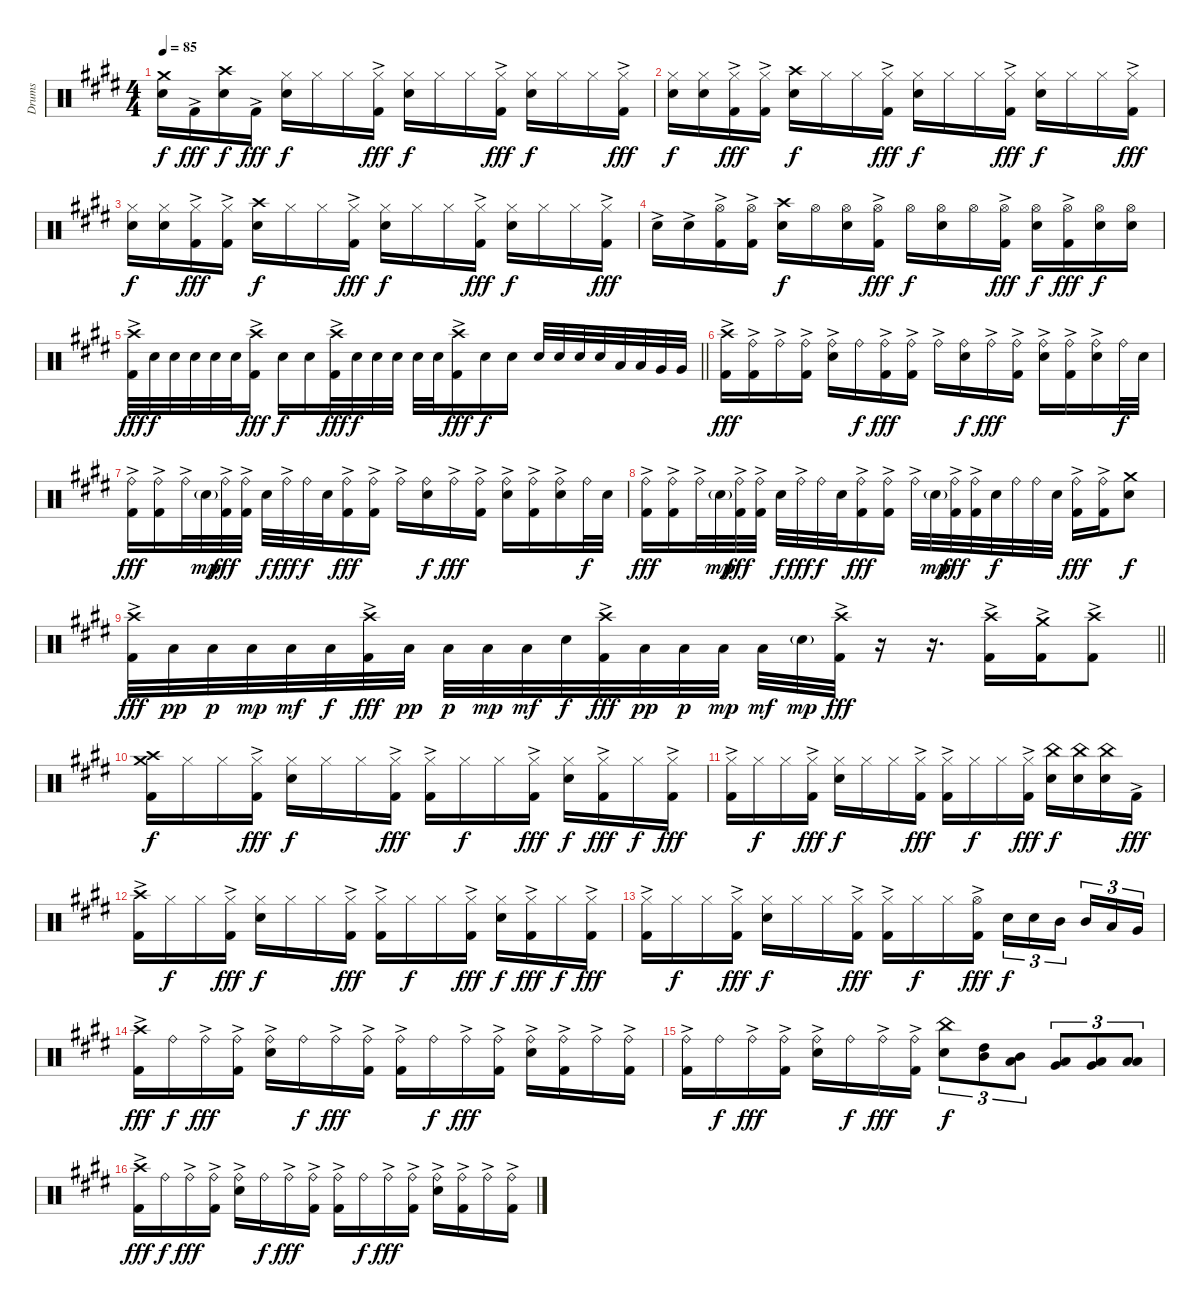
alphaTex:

\track ("Drums" "Drums") {instrument percussion}
\staff {score}
\articulation defaults
\ts (4 4)
\tempo 85
\clef neutral
\ks e
("Crash medium (hit)" "Snare (hit) 2").16{dy f} "Kick (hit) 2"{ac}.16{dy fff} ("Crash high (hit)" "Snare (hit) 2").16{dy f} "Kick (hit) 2"{ac}.16{dy fff} ("Hi-Hat (closed)" "Snare (hit) 2").16{dy f} "Hi-Hat (closed)".16 "Hi-Hat (closed)".16 ("Hi-Hat (closed)" "Kick (hit) 2"{ac}).16{dy fff} ("Hi-Hat (closed)" "Snare (hit) 2").16{dy f} "Hi-Hat (closed)".16 "Hi-Hat (closed)".16 ("Hi-Hat (closed)" "Kick (hit) 2"{ac}).16{dy fff} ("Hi-Hat (closed)" "Snare (hit) 2").16{dy f} "Hi-Hat (closed)".16 "Hi-Hat (closed)".16 ("Hi-Hat (closed)" "Kick (hit) 2"{ac}).16{dy fff} |
("Hi-Hat (closed)" "Snare (hit) 2").16{dy f} ("Hi-Hat (closed)" "Snare (hit) 2").16 ("Hi-Hat (closed)" "Kick (hit) 2"{ac}).16{dy fff} ("Hi-Hat (closed)" "Kick (hit) 2"{ac}).16 ("Crash high (hit)" "Snare (hit) 2").16{dy f} "Hi-Hat (closed)".16 "Hi-Hat (closed)".16 ("Hi-Hat (closed)" "Kick (hit) 2"{ac}).16{dy fff} ("Hi-Hat (closed)" "Snare (hit) 2").16{dy f} "Hi-Hat (closed)".16 "Hi-Hat (closed)".16 ("Hi-Hat (closed)" "Kick (hit) 2"{ac}).16{dy fff} ("Hi-Hat (closed)" "Snare (hit) 2").16{dy f} "Hi-Hat (closed)".16 "Hi-Hat (closed)".16 ("Hi-Hat (closed)" "Kick (hit) 2"{ac}).16{dy fff} |
("Hi-Hat (closed)" "Snare (hit) 2").16{dy f} ("Hi-Hat (closed)" "Snare (hit) 2").16 ("Hi-Hat (closed)" "Kick (hit) 2"{ac}).16{dy fff} ("Hi-Hat (closed)" "Kick (hit) 2"{ac}).16 ("Crash high (hit)" "Snare (hit) 2").16{dy f} "Hi-Hat (closed)".16 "Hi-Hat (closed)".16 ("Hi-Hat (closed)" "Kick (hit) 2"{ac}).16{dy fff} ("Hi-Hat (closed)" "Snare (hit) 2").16{dy f} "Hi-Hat (closed)".16 "Hi-Hat (closed)".16 ("Hi-Hat (closed)" "Kick (hit) 2"{ac}).16{dy fff} ("Hi-Hat (closed)" "Snare (hit) 2").16{dy f} "Hi-Hat (closed)".16 "Hi-Hat (closed)".16 ("Hi-Hat (closed)" "Kick (hit) 2"{ac}).16{dy fff} |
"Snare (hit) 2"{ac}.16 "Snare (hit) 2"{ac}.16 ("Hi-Hat (open)" "Kick (hit) 2"{ac}).16 ("Hi-Hat (open)" "Kick (hit) 2"{ac}).16 ("Crash high (hit)" "Snare (hit) 2").16{dy f} "Hi-Hat (open)".16 ("Hi-Hat (open)" "Snare (hit) 2").16 ("Hi-Hat (open)" "Kick (hit) 2"{ac}).16{dy fff} "Hi-Hat (open)".16{dy f} ("Hi-Hat (open)" "Snare (hit) 2").16 "Hi-Hat (open)".16 ("Hi-Hat (open)" "Kick (hit) 2"{ac}).16{dy fff} ("Hi-Hat (open)" "Snare (hit) 2").16{dy f} ("Hi-Hat (open)" "Kick (hit) 2"{ac}).16{dy fff} ("Hi-Hat (open)" "Snare (hit) 2").16{dy f} ("Hi-Hat (open)" "Snare (hit) 2").16 |
\barLineRight lightlight
("Crash high (hit)" "Kick (hit) 2"{ac}).32{dy fff} "Snare (hit) 2".32{dy f} "Snare (hit) 2".32 "Snare (hit) 2".32 "Snare (hit) 2".32 "Snare (hit) 2".32 ("Crash high (hit)" "Kick (hit) 2"{ac}).16{dy fff} "Snare (hit) 2".16{dy f} "Snare (hit) 2".16 ("Crash high (hit)" "Kick (hit) 2"{ac}).32{dy fff} "Snare (hit) 2".32{dy f} "Snare (hit) 2".32 "Snare (hit) 2".32 "Snare (hit) 2".32 "Snare (hit) 2".32 ("Crash high (hit)" "Kick (hit) 2"{ac}).16{dy fff} "Snare (hit) 2".16{dy f} "Snare (hit) 2".16 "Snare (hit) 2".32 "Snare (hit) 2".32 "Snare (hit) 2".32 "Snare (hit) 2".32 "Low Tom (hit)".32 "Low Tom (hit)".32 "Very Low Tom (hit)".32 "Very Low Tom (hit)".32 |
("Crash high (hit)" "Kick (hit) 2"{ac}).16{dy fff} ("Ride (bell)" "Kick (hit) 2"{ac}).16 "Ride (bell)"{ac}.16 ("Ride (bell)" "Kick (hit) 2"{ac}).16 ("Ride (bell)"{ac} "Snare (hit) 2").16 "Ride (bell)".16{dy f} ("Ride (bell)"{ac} "Kick (hit) 2"{ac}).16{dy fff} ("Ride (bell)" "Kick (hit) 2"{ac}).16 "Ride (bell)"{ac}.16 ("Ride (bell)" "Snare (hit) 2").16{dy f} "Ride (bell)"{ac}.16{dy fff} ("Ride (bell)" "Kick (hit) 2"{ac}).16 ("Ride (bell)"{ac} "Snare (hit) 2").16 ("Ride (bell)" "Kick (hit) 2"{ac}).16 ("Ride (bell)"{ac} "Snare (hit) 2").16 "Ride (bell)".32{dy f} "Snare (hit) 2".32 |
("Ride (bell)"{ac} "Kick (hit) 2"{ac}).16{dy fff} ("Ride (bell)" "Kick (hit) 2"{ac}).16 "Ride (bell)"{ac}.32 "Snare (hit) 2"{g}.32{dy mp} ("Ride (bell)" "Kick (hit) 2"{ac}).32{dy fff} ("Ride (bell)" "Kick (hit) 2"{ac}).32 "Snare (hit) 2".32{dy f} "Ride (bell)"{ac}.32{dy fff} "Ride (bell)".32{dy f} "Snare (hit) 2".32 ("Ride (bell)"{ac} "Kick (hit) 2"{ac}).16{dy fff} ("Ride (bell)" "Kick (hit) 2"{ac}).16 "Ride (bell)"{ac}.16 ("Ride (bell)" "Snare (hit) 2").16{dy f} "Ride (bell)"{ac}.16{dy fff} ("Ride (bell)" "Kick (hit) 2"{ac}).16 ("Ride (bell)"{ac} "Snare (hit) 2").16 ("Ride (bell)" "Kick (hit) 2"{ac}).16 ("Ride (bell)"{ac} "Snare (hit) 2").16 "Ride (bell)".32{dy f} "Snare (hit) 2".32 |
("Ride (bell)"{ac} "Kick (hit) 2"{ac}).16{dy fff} ("Ride (bell)" "Kick (hit) 2"{ac}).16 "Ride (bell)"{ac}.32 "Snare (hit) 2"{g}.32{dy mp} ("Ride (bell)" "Kick (hit) 2"{ac}).32{dy fff} ("Ride (bell)" "Kick (hit) 2"{ac}).32 "Snare (hit) 2".32{dy f} "Ride (bell)"{ac}.32{dy fff} "Ride (bell)".32{dy f} "Snare (hit) 2".32 ("Ride (bell)"{ac} "Kick (hit) 2"{ac}).16{dy fff} ("Ride (bell)" "Kick (hit) 2"{ac}).16 "Ride (bell)"{ac}.32 "Snare (hit) 2"{g}.32{dy mp} ("Ride (bell)" "Kick (hit) 2"{ac}).32{dy fff} ("Ride (bell)"{ac} "Kick (hit) 2"{ac}).32 "Snare (hit) 2".32{dy f} "Ride (bell)".32 "Ride (bell)".32 "Snare (hit) 2".32 ("Ride (bell)"{ac} "Kick (hit) 2"{ac}).16{dy fff} ("Ride (bell)" "Kick (hit) 2"{ac}).16 ("Crash medium (hit)" "Snare (hit) 2").8{dy f} |
\barLineRight lightlight
("Crash high (hit)" "Kick (hit) 2"{ac}).32{dy fff} "Low Floor Tom (hit)".32{dy pp} "Low Floor Tom (hit)".32{dy p} "Low Floor Tom (hit)".32{dy mp} "Low Floor Tom (hit)".32{dy mf} "Low Floor Tom (hit)".32{dy f} ("Crash high (hit)" "Kick (hit) 2"{ac}).32{dy fff} "Low Floor Tom (hit)".32{dy pp} "Low Floor Tom (hit)".32{dy p} "Low Floor Tom (hit)".32{dy mp} "Low Floor Tom (hit)".32{dy mf} "Snare (hit) 2".32{dy f} ("Crash high (hit)" "Kick (hit) 2"{ac}).32{dy fff} "Low Floor Tom (hit)".32{dy pp} "Low Floor Tom (hit)".32{dy p} "Low Floor Tom (hit)".32{dy mp} "Low Floor Tom (hit)".32{dy mf} "Snare (hit) 2"{g}.32{dy mp} ("Crash high (hit)" "Kick (hit) 2"{ac}).32{dy fff} r.16 r.16{d} ("Crash high (hit)" "Kick (hit) 2"{ac}).16 ("Crash medium (hit)" "Kick (hit) 2"{ac}).16 ("Crash high (hit)" "Kick (hit) 2"{ac}).8 |
("Crash high (hit)" "Crash medium (hit)" "Kick (hit) 2").16{dy f} "Hi-Hat (closed)".16 "Hi-Hat (closed)".16 ("Hi-Hat (closed)" "Kick (hit) 2"{ac}).16{dy fff} ("Hi-Hat (closed)" "Snare (hit) 2").16{dy f} "Hi-Hat (closed)".16 "Hi-Hat (closed)".16 ("Hi-Hat (closed)" "Kick (hit) 2"{ac}).16{dy fff} ("Hi-Hat (closed)" "Kick (hit) 2"{ac}).16 "Hi-Hat (closed)".16{dy f} "Hi-Hat (closed)".16 ("Hi-Hat (closed)" "Kick (hit) 2"{ac}).16{dy fff} ("Hi-Hat (closed)" "Snare (hit) 2").16{dy f} ("Hi-Hat (closed)" "Kick (hit) 2"{ac}).16{dy fff} "Hi-Hat (closed)".16{dy f} ("Hi-Hat (closed)" "Kick (hit) 2"{ac}).16{dy fff} |
("Hi-Hat (closed)" "Kick (hit) 2"{ac}).16 "Hi-Hat (closed)".16{dy f} "Hi-Hat (closed)".16 ("Hi-Hat (closed)" "Kick (hit) 2"{ac}).16{dy fff} ("Hi-Hat (closed)" "Snare (hit) 2").16{dy f} "Hi-Hat (closed)".16 "Hi-Hat (closed)".16 ("Hi-Hat (closed)" "Kick (hit) 2"{ac}).16{dy fff} ("Hi-Hat (closed)" "Kick (hit) 2"{ac}).16 "Hi-Hat (closed)".16{dy f} "Hi-Hat (closed)".16 ("Hi-Hat (closed)" "Kick (hit) 2"{ac}).16{dy fff} ("China (hit)" "Snare (hit) 2").16{dy f} ("China (hit)" "Snare (hit) 2").16 ("China (hit)" "Snare (hit) 2").16 "Kick (hit) 2"{ac}.16{dy fff} |
("Crash high (hit)" "Kick (hit) 2"{ac}).16 "Hi-Hat (closed)".16{dy f} "Hi-Hat (closed)".16 ("Hi-Hat (closed)" "Kick (hit) 2"{ac}).16{dy fff} ("Hi-Hat (closed)" "Snare (hit) 2").16{dy f} "Hi-Hat (closed)".16 "Hi-Hat (closed)".16 ("Hi-Hat (closed)" "Kick (hit) 2"{ac}).16{dy fff} ("Hi-Hat (closed)" "Kick (hit) 2"{ac}).16 "Hi-Hat (closed)".16{dy f} "Hi-Hat (closed)".16 ("Hi-Hat (closed)" "Kick (hit) 2"{ac}).16{dy fff} ("Hi-Hat (closed)" "Snare (hit) 2").16{dy f} ("Hi-Hat (closed)" "Kick (hit) 2"{ac}).16{dy fff} "Hi-Hat (closed)".16{dy f} ("Hi-Hat (closed)" "Kick (hit) 2"{ac}).16{dy fff} |
("Hi-Hat (closed)" "Kick (hit) 2"{ac}).16 "Hi-Hat (closed)".16{dy f} "Hi-Hat (closed)".16 ("Hi-Hat (closed)" "Kick (hit) 2"{ac}).16{dy fff} ("Hi-Hat (closed)" "Snare (hit) 2").16{dy f} "Hi-Hat (closed)".16 "Hi-Hat (closed)".16 ("Hi-Hat (closed)" "Kick (hit) 2"{ac}).16{dy fff} ("Hi-Hat (closed)" "Kick (hit) 2"{ac}).16 "Hi-Hat (closed)".16{dy f} "Hi-Hat (closed)".16 ("Hi-Hat (open)" "Kick (hit) 2"{ac}).16{dy fff} "Snare (hit) 2".16{tu (3 2) dy f} "Snare (hit) 2".16{tu (3 2)} "Mid Tom (hit)".16{tu (3 2)} "Mid Tom (hit)".16{tu (3 2)} "Low Tom (hit)".16{tu (3 2)} "Very Low Tom (hit)".16{tu (3 2)} |
("Crash high (hit)" "Kick (hit) 2"{ac}).16{dy fff} "Ride (bell)".16{dy f} "Ride (bell)"{ac}.16{dy fff} ("Ride (bell)" "Kick (hit) 2"{ac}).16 ("Ride (bell)"{ac} "Snare (hit) 2").16 "Ride (bell)".16{dy f} "Ride (bell)"{ac}.16{dy fff} ("Ride (bell)" "Kick (hit) 2"{ac}).16 ("Ride (bell)"{ac} "Kick (hit) 2"{ac}).16 "Ride (bell)".16{dy f} "Ride (bell)"{ac}.16{dy fff} ("Ride (bell)" "Kick (hit) 2"{ac}).16 ("Ride (bell)"{ac} "Snare (hit) 2").16 ("Ride (bell)" "Kick (hit) 2"{ac}).16 "Ride (bell)"{ac}.16 ("Ride (bell)" "Kick (hit) 2"{ac}).16 |
("Ride (bell)"{ac} "Kick (hit) 2"{ac}).16 "Ride (bell)".16{dy f} "Ride (bell)"{ac}.16{dy fff} ("Ride (bell)" "Kick (hit) 2"{ac}).16 ("Ride (bell)"{ac} "Snare (hit) 2").16 "Ride (bell)".16{dy f} "Ride (bell)"{ac}.16{dy fff} ("Ride (bell)" "Kick (hit) 2"{ac}).16 ("China (hit)" "Snare (hit) 2").8{tu (3 2) dy f} ("Mid Tom (hit)" "High Tom (hit)").8{tu (3 2)} ("Mid Tom (hit)" "Low Tom (hit)").8{tu (3 2)} ("Low Tom (hit)" "Very Low Tom (hit)").8{tu (3 2)} ("Very Low Tom (hit)" "Low Floor Tom (hit)").8{tu (3 2)} ("Low Floor Tom (hit)" "Low Floor Tom (hit)").8{tu (3 2)} |
("Crash high (hit)" "Kick (hit) 2"{ac}).16{dy fff} "Ride (bell)".16{dy f} "Ride (bell)"{ac}.16{dy fff} ("Ride (bell)" "Kick (hit) 2"{ac}).16 ("Ride (bell)"{ac} "Snare (hit) 2").16 "Ride (bell)".16{dy f} "Ride (bell)"{ac}.16{dy fff} ("Ride (bell)" "Kick (hit) 2"{ac}).16 ("Ride (bell)"{ac} "Kick (hit) 2"{ac}).16 "Ride (bell)".16{dy f} "Ride (bell)"{ac}.16{dy fff} ("Ride (bell)" "Kick (hit) 2"{ac}).16 ("Ride (bell)"{ac} "Snare (hit) 2").16 ("Ride (bell)" "Kick (hit) 2"{ac}).16 "Ride (bell)"{ac}.16 ("Ride (bell)" "Kick (hit) 2"{ac}).16
